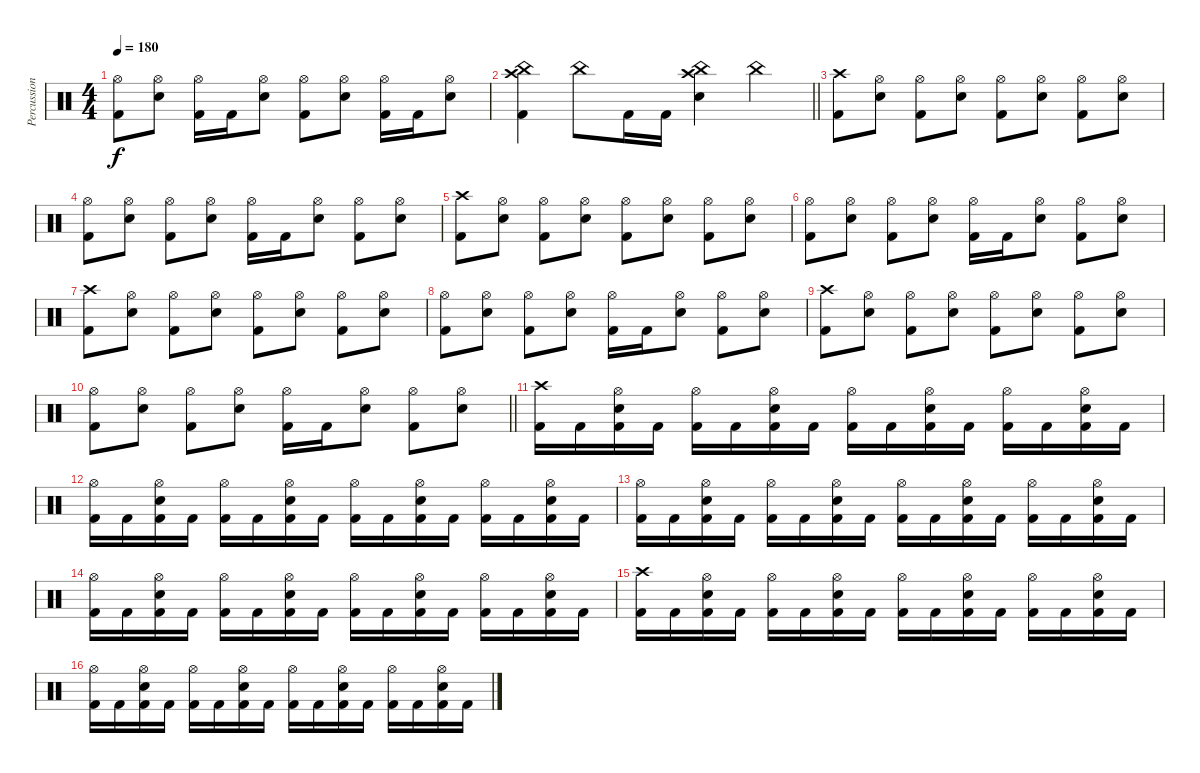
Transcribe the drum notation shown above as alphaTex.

\track ("Percussion" "Percussion") {instrument percussion}
\staff {score}
\articulation defaults
\ts (4 4)
\tempo 180
\clef neutral
\ks c
("Hi-Hat (open)" "Kick (hit) 2").8{dy f} ("Hi-Hat (open)" "Electric Snare (hit)").8 ("Hi-Hat (open)" "Kick (hit) 2").16 "Kick (hit) 2".16 ("Hi-Hat (open)" "Electric Snare (hit)").8 ("Hi-Hat (open)" "Kick (hit) 2").8 ("Hi-Hat (open)" "Electric Snare (hit)").8 ("Hi-Hat (open)" "Kick (hit) 2").16 "Kick (hit) 2".16 ("Hi-Hat (open)" "Electric Snare (hit)").8 |
\barLineRight lightlight
("Crash high (hit)" "China (hit)" "Kick (hit) 2").4 "China (hit)".8 "Kick (hit) 2".16 "Kick (hit) 2".16 ("Crash high (hit)" "China (hit)" "Electric Snare (hit)").4 "China (hit)".4 |
\section ("" "")
("Crash high (hit)" "Kick (hit) 2").8 ("Hi-Hat (open)" "Electric Snare (hit)").8 ("Hi-Hat (open)" "Kick (hit) 2").8 ("Hi-Hat (open)" "Electric Snare (hit)").8 ("Hi-Hat (open)" "Kick (hit) 2").8 ("Hi-Hat (open)" "Electric Snare (hit)").8 ("Hi-Hat (open)" "Kick (hit) 2").8 ("Hi-Hat (open)" "Electric Snare (hit)").8 |
("Hi-Hat (open)" "Kick (hit) 2").8 ("Hi-Hat (open)" "Electric Snare (hit)").8 ("Hi-Hat (open)" "Kick (hit) 2").8 ("Hi-Hat (open)" "Electric Snare (hit)").8 ("Hi-Hat (open)" "Kick (hit) 2").16 "Kick (hit) 2".16 ("Hi-Hat (open)" "Electric Snare (hit)").8 ("Hi-Hat (open)" "Kick (hit) 2").8 ("Hi-Hat (open)" "Electric Snare (hit)").8 |
("Crash high (hit)" "Kick (hit) 2").8 ("Hi-Hat (open)" "Electric Snare (hit)").8 ("Hi-Hat (open)" "Kick (hit) 2").8 ("Hi-Hat (open)" "Electric Snare (hit)").8 ("Hi-Hat (open)" "Kick (hit) 2").8 ("Hi-Hat (open)" "Electric Snare (hit)").8 ("Hi-Hat (open)" "Kick (hit) 2").8 ("Hi-Hat (open)" "Electric Snare (hit)").8 |
("Hi-Hat (open)" "Kick (hit) 2").8 ("Hi-Hat (open)" "Electric Snare (hit)").8 ("Hi-Hat (open)" "Kick (hit) 2").8 ("Hi-Hat (open)" "Electric Snare (hit)").8 ("Hi-Hat (open)" "Kick (hit) 2").16 "Kick (hit) 2".16 ("Hi-Hat (open)" "Electric Snare (hit)").8 ("Hi-Hat (open)" "Kick (hit) 2").8 ("Hi-Hat (open)" "Electric Snare (hit)").8 |
("Crash high (hit)" "Kick (hit) 2").8 ("Hi-Hat (open)" "Electric Snare (hit)").8 ("Hi-Hat (open)" "Kick (hit) 2").8 ("Hi-Hat (open)" "Electric Snare (hit)").8 ("Hi-Hat (open)" "Kick (hit) 2").8 ("Hi-Hat (open)" "Electric Snare (hit)").8 ("Hi-Hat (open)" "Kick (hit) 2").8 ("Hi-Hat (open)" "Electric Snare (hit)").8 |
("Hi-Hat (open)" "Kick (hit) 2").8 ("Hi-Hat (open)" "Electric Snare (hit)").8 ("Hi-Hat (open)" "Kick (hit) 2").8 ("Hi-Hat (open)" "Electric Snare (hit)").8 ("Hi-Hat (open)" "Kick (hit) 2").16 "Kick (hit) 2".16 ("Hi-Hat (open)" "Electric Snare (hit)").8 ("Hi-Hat (open)" "Kick (hit) 2").8 ("Hi-Hat (open)" "Electric Snare (hit)").8 |
("Crash high (hit)" "Kick (hit) 2").8 ("Hi-Hat (open)" "Electric Snare (hit)").8 ("Hi-Hat (open)" "Kick (hit) 2").8 ("Hi-Hat (open)" "Electric Snare (hit)").8 ("Hi-Hat (open)" "Kick (hit) 2").8 ("Hi-Hat (open)" "Electric Snare (hit)").8 ("Hi-Hat (open)" "Kick (hit) 2").8 ("Hi-Hat (open)" "Electric Snare (hit)").8 |
\barLineRight lightlight
("Hi-Hat (open)" "Kick (hit) 2").8 ("Hi-Hat (open)" "Electric Snare (hit)").8 ("Hi-Hat (open)" "Kick (hit) 2").8 ("Hi-Hat (open)" "Electric Snare (hit)").8 ("Hi-Hat (open)" "Kick (hit) 2").16 "Kick (hit) 2".16 ("Hi-Hat (open)" "Electric Snare (hit)").8 ("Hi-Hat (open)" "Kick (hit) 2").8 ("Hi-Hat (open)" "Electric Snare (hit)").8 |
\section ("" "")
("Crash high (hit)" "Kick (hit) 2").16 "Kick (hit) 2".16 ("Hi-Hat (open)" "Electric Snare (hit)" "Kick (hit) 2").16 "Kick (hit) 2".16 ("Hi-Hat (open)" "Kick (hit) 2").16 "Kick (hit) 2".16 ("Hi-Hat (open)" "Electric Snare (hit)" "Kick (hit) 2").16 "Kick (hit) 2".16 ("Hi-Hat (open)" "Kick (hit) 2").16 "Kick (hit) 2".16 ("Hi-Hat (open)" "Electric Snare (hit)" "Kick (hit) 2").16 "Kick (hit) 2".16 ("Hi-Hat (open)" "Kick (hit) 2").16 "Kick (hit) 2".16 ("Hi-Hat (open)" "Electric Snare (hit)" "Kick (hit) 2").16 "Kick (hit) 2".16 |
("Hi-Hat (open)" "Kick (hit) 2").16 "Kick (hit) 2".16 ("Hi-Hat (open)" "Electric Snare (hit)" "Kick (hit) 2").16 "Kick (hit) 2".16 ("Hi-Hat (open)" "Kick (hit) 2").16 "Kick (hit) 2".16 ("Hi-Hat (open)" "Electric Snare (hit)" "Kick (hit) 2").16 "Kick (hit) 2".16 ("Hi-Hat (open)" "Kick (hit) 2").16 "Kick (hit) 2".16 ("Hi-Hat (open)" "Electric Snare (hit)" "Kick (hit) 2").16 "Kick (hit) 2".16 ("Hi-Hat (open)" "Kick (hit) 2").16 "Kick (hit) 2".16 ("Hi-Hat (open)" "Electric Snare (hit)" "Kick (hit) 2").16 "Kick (hit) 2".16 |
("Hi-Hat (open)" "Kick (hit) 2").16 "Kick (hit) 2".16 ("Hi-Hat (open)" "Electric Snare (hit)" "Kick (hit) 2").16 "Kick (hit) 2".16 ("Hi-Hat (open)" "Kick (hit) 2").16 "Kick (hit) 2".16 ("Hi-Hat (open)" "Electric Snare (hit)" "Kick (hit) 2").16 "Kick (hit) 2".16 ("Hi-Hat (open)" "Kick (hit) 2").16 "Kick (hit) 2".16 ("Hi-Hat (open)" "Electric Snare (hit)" "Kick (hit) 2").16 "Kick (hit) 2".16 ("Hi-Hat (open)" "Kick (hit) 2").16 "Kick (hit) 2".16 ("Hi-Hat (open)" "Electric Snare (hit)" "Kick (hit) 2").16 "Kick (hit) 2".16 |
("Hi-Hat (open)" "Kick (hit) 2").16 "Kick (hit) 2".16 ("Hi-Hat (open)" "Electric Snare (hit)" "Kick (hit) 2").16 "Kick (hit) 2".16 ("Hi-Hat (open)" "Kick (hit) 2").16 "Kick (hit) 2".16 ("Hi-Hat (open)" "Electric Snare (hit)" "Kick (hit) 2").16 "Kick (hit) 2".16 ("Hi-Hat (open)" "Kick (hit) 2").16 "Kick (hit) 2".16 ("Hi-Hat (open)" "Electric Snare (hit)" "Kick (hit) 2").16 "Kick (hit) 2".16 ("Hi-Hat (open)" "Kick (hit) 2").16 "Kick (hit) 2".16 ("Hi-Hat (open)" "Electric Snare (hit)" "Kick (hit) 2").16 "Kick (hit) 2".16 |
("Crash high (hit)" "Kick (hit) 2").16 "Kick (hit) 2".16 ("Hi-Hat (open)" "Electric Snare (hit)" "Kick (hit) 2").16 "Kick (hit) 2".16 ("Hi-Hat (open)" "Kick (hit) 2").16 "Kick (hit) 2".16 ("Hi-Hat (open)" "Electric Snare (hit)" "Kick (hit) 2").16 "Kick (hit) 2".16 ("Hi-Hat (open)" "Kick (hit) 2").16 "Kick (hit) 2".16 ("Hi-Hat (open)" "Electric Snare (hit)" "Kick (hit) 2").16 "Kick (hit) 2".16 ("Hi-Hat (open)" "Kick (hit) 2").16 "Kick (hit) 2".16 ("Hi-Hat (open)" "Electric Snare (hit)" "Kick (hit) 2").16 "Kick (hit) 2".16 |
("Hi-Hat (open)" "Kick (hit) 2").16 "Kick (hit) 2".16 ("Hi-Hat (open)" "Electric Snare (hit)" "Kick (hit) 2").16 "Kick (hit) 2".16 ("Hi-Hat (open)" "Kick (hit) 2").16 "Kick (hit) 2".16 ("Hi-Hat (open)" "Electric Snare (hit)" "Kick (hit) 2").16 "Kick (hit) 2".16 ("Hi-Hat (open)" "Kick (hit) 2").16 "Kick (hit) 2".16 ("Hi-Hat (open)" "Electric Snare (hit)" "Kick (hit) 2").16 "Kick (hit) 2".16 ("Hi-Hat (open)" "Kick (hit) 2").16 "Kick (hit) 2".16 ("Hi-Hat (open)" "Electric Snare (hit)" "Kick (hit) 2").16 "Kick (hit) 2".16
